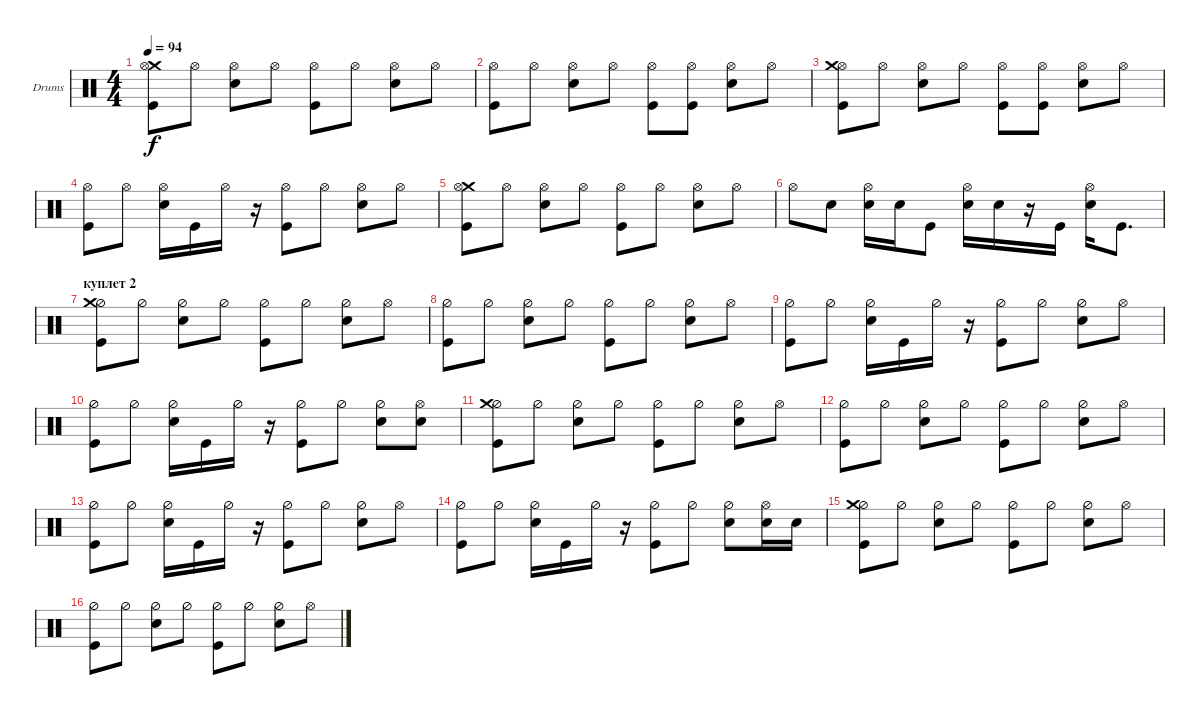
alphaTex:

\defaultSystemsLayout 4
\bracketExtendMode groupsimilarinstruments
\firstSystemTrackNameOrientation horizontal
\otherSystemsTrackNameOrientation horizontal
\track ("Drumkit" "Drums") {instrument percussion}
\staff {score}
\articulation defaults
\ts (4 4)
\tempo 94
\clef neutral
\ks c
("Kick (hit)" "Crash medium (hit)" "Hi-Hat (open)").8{dy f} "Hi-Hat (open)".8 ("Snare (hit) 2" "Hi-Hat (open)").8 "Hi-Hat (open)".8 ("Kick (hit)" "Hi-Hat (open)").8 "Hi-Hat (open)".8 ("Snare (hit) 2" "Hi-Hat (open)").8 "Hi-Hat (open)".8 |
("Kick (hit)" "Hi-Hat (open)").8 "Hi-Hat (open)".8 ("Snare (hit) 2" "Hi-Hat (open)").8 "Hi-Hat (open)".8 ("Kick (hit)" "Hi-Hat (open)").8 ("Kick (hit)" "Hi-Hat (open)").8 ("Snare (hit) 2" "Hi-Hat (open)").8 "Hi-Hat (open)".8 |
("Kick (hit)" "Hi-Hat (open)" "Crash medium (hit)").8 "Hi-Hat (open)".8 ("Snare (hit) 2" "Hi-Hat (open)").8 "Hi-Hat (open)".8 ("Kick (hit)" "Hi-Hat (open)").8 ("Kick (hit)" "Hi-Hat (open)").8 ("Snare (hit) 2" "Hi-Hat (open)").8 "Hi-Hat (open)".8 |
("Kick (hit)" "Hi-Hat (open)").8 "Hi-Hat (open)".8 ("Snare (hit) 2" "Hi-Hat (open)").16 "Kick (hit)".16 "Hi-Hat (open)".16 r.16 ("Hi-Hat (open)" "Kick (hit)").8 "Hi-Hat (open)".8 ("Hi-Hat (open)" "Snare (hit) 2").8 "Hi-Hat (open)".8 |
("Kick (hit)" "Crash medium (hit)" "Hi-Hat (open)").8 "Hi-Hat (open)".8 ("Snare (hit) 2" "Hi-Hat (open)").8 "Hi-Hat (open)".8 ("Kick (hit)" "Hi-Hat (open)").8 "Hi-Hat (open)".8 ("Snare (hit) 2" "Hi-Hat (open)").8 "Hi-Hat (open)".8 |
"Hi-Hat (open)".8 "Snare (hit) 2".8 ("Snare (hit) 2" "Hi-Hat (open)").16 "Snare (hit) 2".16 "Kick (hit)".8 ("Snare (hit) 2" "Hi-Hat (open)").16 "Snare (hit) 2".16 r.16 "Kick (hit)".16 ("Snare (hit) 2" "Hi-Hat (open)").16 "Kick (hit)".8{d} |
\section ("" "куплет 2")
("Kick (hit)" "Hi-Hat (half)" "Crash medium (hit)").8 "Hi-Hat (half)".8 ("Snare (hit) 2" "Hi-Hat (half)").8 "Hi-Hat (half)".8 ("Kick (hit)" "Hi-Hat (half)").8 "Hi-Hat (half)".8 ("Snare (hit) 2" "Hi-Hat (half)").8 "Hi-Hat (open)".8 |
("Kick (hit)" "Hi-Hat (half)").8 "Hi-Hat (half)".8 ("Snare (hit) 2" "Hi-Hat (half)").8 "Hi-Hat (half)".8 ("Kick (hit)" "Hi-Hat (half)").8 "Hi-Hat (half)".8 ("Snare (hit) 2" "Hi-Hat (half)").8 "Hi-Hat (open)".8 |
("Kick (hit)" "Hi-Hat (half)").8 "Hi-Hat (half)".8 ("Snare (hit) 2" "Hi-Hat (half)").16 "Kick (hit)".16 "Hi-Hat (half)".16 r.16 ("Hi-Hat (half)" "Kick (hit)").8 "Hi-Hat (half)".8 ("Hi-Hat (half)" "Snare (hit) 2").8 "Hi-Hat (open)".8 |
("Kick (hit)" "Hi-Hat (half)").8 "Hi-Hat (half)".8 ("Snare (hit) 2" "Hi-Hat (half)").16 "Kick (hit)".16 "Hi-Hat (half)".16 r.16 ("Hi-Hat (half)" "Kick (hit)").8 "Hi-Hat (half)".8 ("Hi-Hat (half)" "Snare (hit) 2").8 ("Hi-Hat (open)" "Snare (hit) 2").8 |
("Kick (hit)" "Hi-Hat (half)" "Crash medium (hit)").8 "Hi-Hat (half)".8 ("Snare (hit) 2" "Hi-Hat (half)").8 "Hi-Hat (half)".8 ("Kick (hit)" "Hi-Hat (half)").8 "Hi-Hat (half)".8 ("Snare (hit) 2" "Hi-Hat (half)").8 "Hi-Hat (open)".8 |
("Kick (hit)" "Hi-Hat (half)").8 "Hi-Hat (half)".8 ("Snare (hit) 2" "Hi-Hat (half)").8 "Hi-Hat (half)".8 ("Kick (hit)" "Hi-Hat (half)").8 "Hi-Hat (half)".8 ("Snare (hit) 2" "Hi-Hat (half)").8 "Hi-Hat (open)".8 |
("Kick (hit)" "Hi-Hat (half)").8 "Hi-Hat (half)".8 ("Snare (hit) 2" "Hi-Hat (half)").16 "Kick (hit)".16 "Hi-Hat (half)".16 r.16 ("Hi-Hat (half)" "Kick (hit)").8 "Hi-Hat (half)".8 ("Hi-Hat (half)" "Snare (hit) 2").8 "Hi-Hat (open)".8 |
("Kick (hit)" "Hi-Hat (half)").8 "Hi-Hat (half)".8 ("Snare (hit) 2" "Hi-Hat (half)").16 "Kick (hit)".16 "Hi-Hat (half)".16 r.16 ("Hi-Hat (half)" "Kick (hit)").8 "Hi-Hat (half)".8 ("Hi-Hat (half)" "Snare (hit) 2").8 ("Hi-Hat (open)" "Snare (hit) 2").16 "Snare (hit) 2".16 |
("Kick (hit)" "Hi-Hat (half)" "Crash medium (hit)").8 "Hi-Hat (half)".8 ("Snare (hit) 2" "Hi-Hat (half)").8 "Hi-Hat (half)".8 ("Kick (hit)" "Hi-Hat (half)").8 "Hi-Hat (half)".8 ("Snare (hit) 2" "Hi-Hat (half)").8 "Hi-Hat (open)".8 |
("Kick (hit)" "Hi-Hat (half)").8 "Hi-Hat (half)".8 ("Snare (hit) 2" "Hi-Hat (half)").8 "Hi-Hat (half)".8 ("Kick (hit)" "Hi-Hat (half)").8 "Hi-Hat (half)".8 ("Snare (hit) 2" "Hi-Hat (half)").8 "Hi-Hat (open)".8
